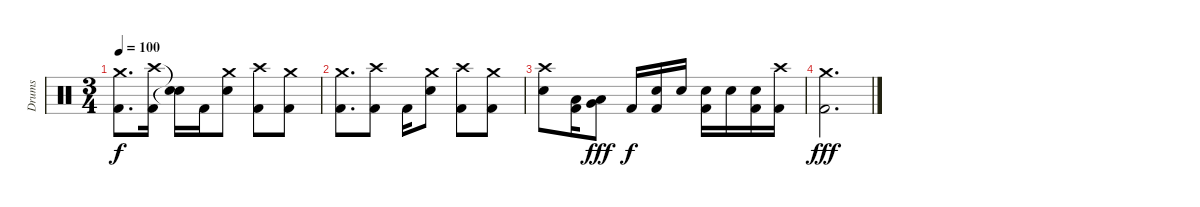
\track ("Drums" "Drums") {instrument percussion}
\staff {score}
\articulation defaults
\ts (3 4)
\tempo 100
\clef neutral
\ks c
("Crash medium (hit)" "Kick (hit) 2").8{d dy f} ("Crash high (hit)" "Kick (hit) 2").16 ("Snare (hit)"{t} "Snare (hit)"{t}).16 "Kick (hit) 2".16 ("Crash medium (hit)" "Electric Snare (hit)").8 ("Crash high (hit)" "Kick (hit) 2").8 ("Crash medium (hit)" "Kick (hit) 2").8 |
("Crash medium (hit)" "Kick (hit) 2").8{d} ("Crash high (hit)" "Kick (hit) 2").8 "Kick (hit) 2".16 ("Crash medium (hit)" "Electric Snare (hit)").8 ("Crash high (hit)" "Kick (hit) 2").8 ("Crash medium (hit)" "Kick (hit) 2").8 |
("Crash high (hit)" "Electric Snare (hit)").8 ("Low Tom (hit)" "Kick (hit) 2").16 ("Very Low Tom (hit)" "Low Tom (hit)").8{dy fff} "Kick (hit) 2".16{dy f} ("Electric Snare (hit)" "Kick (hit) 2").16 "Electric Snare (hit)".16 ("Electric Snare (hit)" "Kick (hit) 2").16 "Electric Snare (hit)".16 ("Electric Snare (hit)" "Kick (hit) 2").16 ("Crash high (hit)" "Kick (hit) 2").16 |
("Crash medium (hit)" "Kick (hit) 2").2{d dy fff}
